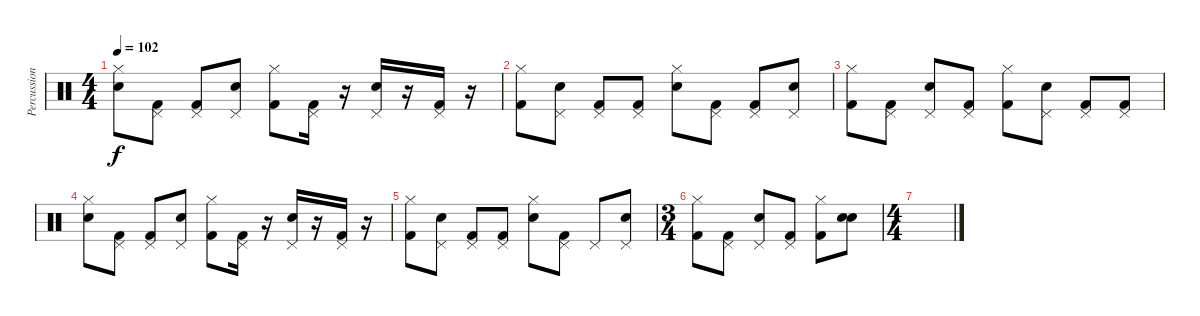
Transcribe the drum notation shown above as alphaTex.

\track ("Percussion" "Percussion") {instrument percussion}
\staff {score}
\articulation defaults
\ts (4 4)
\tempo 102
\clef neutral
\ks c
("Hi-Hat (closed)" "Electric Snare (hit)").8{dy f} ("Pedal Hi-Hat (hit)" "Kick (hit) 2").8 ("Pedal Hi-Hat (hit)" "Kick (hit) 2").8 ("Pedal Hi-Hat (hit)" "Electric Snare (hit)").8 ("Hi-Hat (closed)" "Kick (hit) 2").8 ("Pedal Hi-Hat (hit)" "Kick (hit) 2").16 r.16 ("Pedal Hi-Hat (hit)" "Electric Snare (hit)").16 r.16 ("Pedal Hi-Hat (hit)" "Kick (hit) 2").16 r.16 |
("Hi-Hat (closed)" "Kick (hit) 2").8 ("Pedal Hi-Hat (hit)" "Electric Snare (hit)").8 ("Pedal Hi-Hat (hit)" "Kick (hit) 2").8 ("Pedal Hi-Hat (hit)" "Kick (hit) 2").8 ("Hi-Hat (closed)" "Electric Snare (hit)").8 ("Pedal Hi-Hat (hit)" "Kick (hit) 2").8 ("Pedal Hi-Hat (hit)" "Kick (hit) 2").8 ("Pedal Hi-Hat (hit)" "Electric Snare (hit)").8 |
("Hi-Hat (closed)" "Kick (hit) 2").8 ("Pedal Hi-Hat (hit)" "Kick (hit) 2").8 ("Pedal Hi-Hat (hit)" "Electric Snare (hit)").8 ("Pedal Hi-Hat (hit)" "Kick (hit) 2").8 ("Hi-Hat (closed)" "Kick (hit) 2").8 ("Pedal Hi-Hat (hit)" "Electric Snare (hit)").8 ("Pedal Hi-Hat (hit)" "Kick (hit) 2").8 ("Pedal Hi-Hat (hit)" "Kick (hit) 2").8 |
("Hi-Hat (closed)" "Electric Snare (hit)").8 ("Pedal Hi-Hat (hit)" "Kick (hit) 2").8 ("Pedal Hi-Hat (hit)" "Kick (hit) 2").8 ("Pedal Hi-Hat (hit)" "Electric Snare (hit)").8 ("Hi-Hat (closed)" "Kick (hit) 2").8 ("Pedal Hi-Hat (hit)" "Kick (hit) 2").16 r.16 ("Pedal Hi-Hat (hit)" "Electric Snare (hit)").16 r.16 ("Pedal Hi-Hat (hit)" "Kick (hit) 2").16 r.16 |
("Hi-Hat (closed)" "Kick (hit) 2").8 ("Pedal Hi-Hat (hit)" "Electric Snare (hit)").8 ("Pedal Hi-Hat (hit)" "Kick (hit) 2").8 ("Pedal Hi-Hat (hit)" "Kick (hit) 2").8 ("Hi-Hat (closed)" "Electric Snare (hit)").8 ("Pedal Hi-Hat (hit)" "Kick (hit) 2").8 "Pedal Hi-Hat (hit)".8 ("Pedal Hi-Hat (hit)" "Electric Snare (hit)").8 |
\ts (3 4)
("Kick (hit) 2" "Hi-Hat (closed)").8 ("Kick (hit) 2" "Pedal Hi-Hat (hit)").8 ("Electric Snare (hit)" "Pedal Hi-Hat (hit)").8 ("Kick (hit) 2" "Pedal Hi-Hat (hit)").8 ("Kick (hit) 2" "Hi-Hat (closed)").8 ("Electric Snare (hit)" "Snare (hit)").8 |
\ts (4 4)
